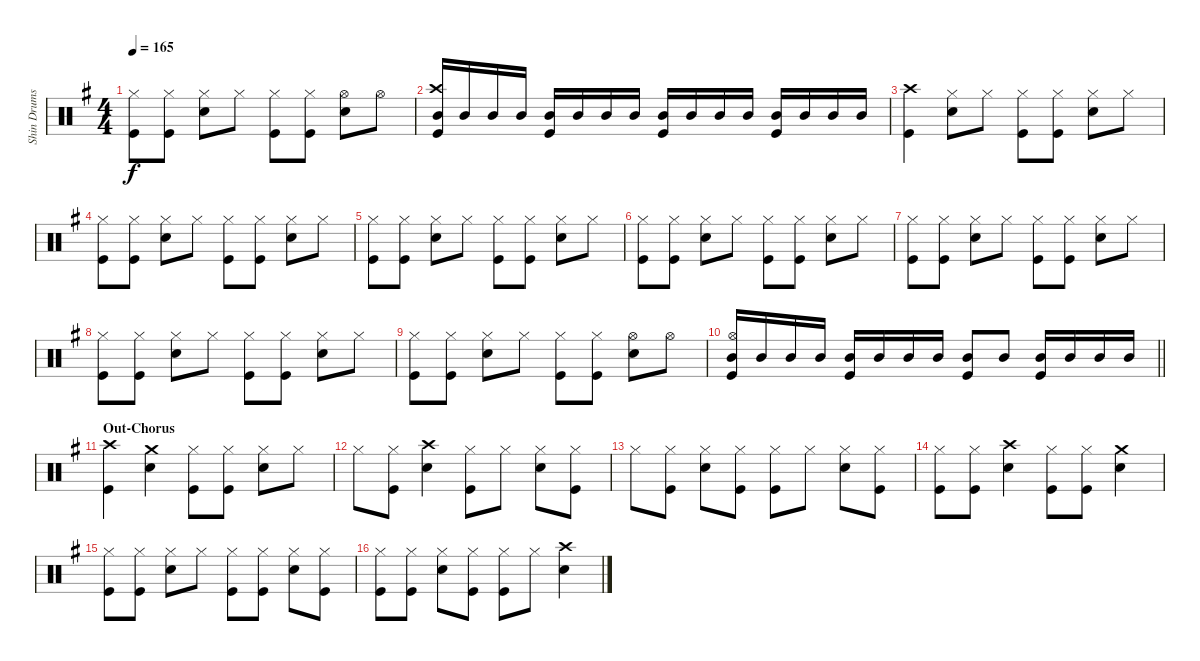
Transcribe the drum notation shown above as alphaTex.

\track ("Shin Drums" "Shin Drums") {instrument percussion}
\staff {score}
\articulation defaults
\ts (4 4)
\tempo 165
\clef neutral
\ks g
("Hi-Hat (closed)" "Kick (hit)").8{dy f} ("Hi-Hat (closed)" "Kick (hit)").8 ("Hi-Hat (closed)" "Snare (hit) 2").8 "Hi-Hat (closed)".8 ("Hi-Hat (closed)" "Kick (hit)").8 ("Hi-Hat (closed)" "Kick (hit)").8 ("Hi-Hat (open)" "Snare (hit) 2").8 "Hi-Hat (open)".8 |
("Crash high (hit)" "Mid Tom (hit)" "Kick (hit)").16 "Mid Tom (hit)".16 "Mid Tom (hit)".16 "Mid Tom (hit)".16 ("Mid Tom (hit)" "Kick (hit)").16 "Mid Tom (hit)".16 "Mid Tom (hit)".16 "Mid Tom (hit)".16 ("Mid Tom (hit)" "Kick (hit)").16 "Mid Tom (hit)".16 "Mid Tom (hit)".16 "Mid Tom (hit)".16 ("Mid Tom (hit)" "Kick (hit)").16 "Mid Tom (hit)".16 "Mid Tom (hit)".16 "Mid Tom (hit)".16 |
("Crash high (hit)" "Kick (hit)").4 ("Hi-Hat (closed)" "Snare (hit) 2").8 "Hi-Hat (closed)".8 ("Hi-Hat (closed)" "Kick (hit)").8 ("Hi-Hat (closed)" "Kick (hit)").8 ("Hi-Hat (closed)" "Snare (hit) 2").8 "Hi-Hat (closed)".8 |
("Hi-Hat (closed)" "Kick (hit)").8 ("Hi-Hat (closed)" "Kick (hit)").8 ("Hi-Hat (closed)" "Snare (hit) 2").8 "Hi-Hat (closed)".8 ("Hi-Hat (closed)" "Kick (hit)").8 ("Hi-Hat (closed)" "Kick (hit)").8 ("Hi-Hat (closed)" "Snare (hit) 2").8 "Hi-Hat (closed)".8 |
("Hi-Hat (closed)" "Kick (hit)").8 ("Hi-Hat (closed)" "Kick (hit)").8 ("Hi-Hat (closed)" "Snare (hit) 2").8 "Hi-Hat (closed)".8 ("Hi-Hat (closed)" "Kick (hit)").8 ("Hi-Hat (closed)" "Kick (hit)").8 ("Hi-Hat (closed)" "Snare (hit) 2").8 "Hi-Hat (closed)".8 |
("Hi-Hat (closed)" "Kick (hit)").8 ("Hi-Hat (closed)" "Kick (hit)").8 ("Hi-Hat (closed)" "Snare (hit) 2").8 "Hi-Hat (closed)".8 ("Hi-Hat (closed)" "Kick (hit)").8 ("Hi-Hat (closed)" "Kick (hit)").8 ("Hi-Hat (closed)" "Snare (hit) 2").8 "Hi-Hat (closed)".8 |
("Hi-Hat (closed)" "Kick (hit)").8 ("Hi-Hat (closed)" "Kick (hit)").8 ("Hi-Hat (closed)" "Snare (hit) 2").8 "Hi-Hat (closed)".8 ("Hi-Hat (closed)" "Kick (hit)").8 ("Hi-Hat (closed)" "Kick (hit)").8 ("Hi-Hat (closed)" "Snare (hit) 2").8 "Hi-Hat (closed)".8 |
("Hi-Hat (closed)" "Kick (hit)").8 ("Hi-Hat (closed)" "Kick (hit)").8 ("Hi-Hat (closed)" "Snare (hit) 2").8 "Hi-Hat (closed)".8 ("Hi-Hat (closed)" "Kick (hit)").8 ("Hi-Hat (closed)" "Kick (hit)").8 ("Hi-Hat (closed)" "Snare (hit) 2").8 "Hi-Hat (closed)".8 |
("Hi-Hat (closed)" "Kick (hit)").8 ("Hi-Hat (closed)" "Kick (hit)").8 ("Hi-Hat (closed)" "Snare (hit) 2").8 "Hi-Hat (closed)".8 ("Hi-Hat (closed)" "Kick (hit)").8 ("Hi-Hat (closed)" "Kick (hit)").8 ("Hi-Hat (open)" "Snare (hit) 2").8 "Hi-Hat (open)".8 |
\barLineRight lightlight
("Hi-Hat (open)" "Mid Tom (hit)" "Kick (hit)").16 "Mid Tom (hit)".16 "Mid Tom (hit)".16 "Mid Tom (hit)".16 ("Mid Tom (hit)" "Kick (hit)").16 "Mid Tom (hit)".16 "Mid Tom (hit)".16 "Mid Tom (hit)".16 ("Mid Tom (hit)" "Kick (hit)").8 "Mid Tom (hit)".8 ("Mid Tom (hit)" "Kick (hit)").16 "Mid Tom (hit)".16 "Mid Tom (hit)".16 "Mid Tom (hit)".16 |
\section ("" "Out-Chorus")
("Crash high (hit)" "Kick (hit)").4 ("Crash medium (hit)" "Snare (hit) 2").4 ("Hi-Hat (closed)" "Kick (hit)").8 ("Hi-Hat (closed)" "Kick (hit)").8 ("Hi-Hat (closed)" "Snare (hit) 2").8 "Hi-Hat (closed)".8 |
"Hi-Hat (closed)".8 ("Hi-Hat (closed)" "Kick (hit)").8 ("Crash high (hit)" "Snare (hit) 2").4 ("Hi-Hat (closed)" "Kick (hit)").8 "Hi-Hat (closed)".8 ("Hi-Hat (closed)" "Snare (hit) 2").8 ("Hi-Hat (closed)" "Kick (hit)").8 |
"Hi-Hat (closed)".8 ("Hi-Hat (closed)" "Kick (hit)").8 ("Hi-Hat (closed)" "Snare (hit) 2").8 ("Hi-Hat (closed)" "Kick (hit)").8 ("Hi-Hat (closed)" "Kick (hit)").8 "Hi-Hat (closed)".8 ("Hi-Hat (closed)" "Snare (hit) 2").8 ("Hi-Hat (closed)" "Kick (hit)").8 |
("Hi-Hat (closed)" "Kick (hit)").8 ("Hi-Hat (closed)" "Kick (hit)").8 ("Crash high (hit)" "Snare (hit) 2").4 ("Hi-Hat (closed)" "Kick (hit)").8 ("Hi-Hat (closed)" "Kick (hit)").8 ("Crash medium (hit)" "Snare (hit) 2").4 |
("Hi-Hat (closed)" "Kick (hit)").8 ("Hi-Hat (closed)" "Kick (hit)").8 ("Hi-Hat (closed)" "Snare (hit) 2").8 "Hi-Hat (closed)".8 ("Hi-Hat (closed)" "Kick (hit)").8 ("Hi-Hat (closed)" "Kick (hit)").8 ("Hi-Hat (closed)" "Snare (hit) 2").8 ("Hi-Hat (closed)" "Kick (hit)").8 |
("Hi-Hat (closed)" "Kick (hit)").8 ("Hi-Hat (closed)" "Kick (hit)").8 ("Hi-Hat (closed)" "Snare (hit) 2").8 ("Hi-Hat (closed)" "Kick (hit)").8 ("Hi-Hat (closed)" "Kick (hit)").8 "Hi-Hat (closed)".8 ("Crash high (hit)" "Snare (hit) 2").4
